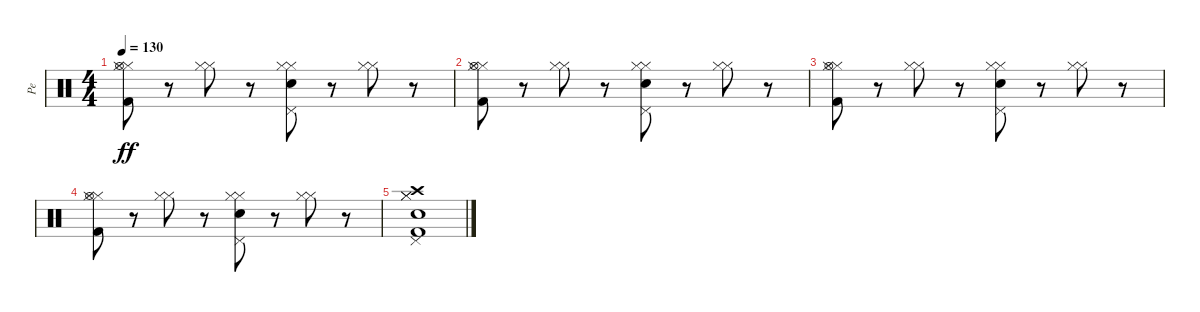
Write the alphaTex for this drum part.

\track ("Pe" "Pe") {instrument percussion}
\staff {score}
\articulation defaults
\ts (4 4)
\tempo 130
\clef neutral
\ks c
("Hi-Hat (closed)" "Hi-Hat (closed)" "Hi-Hat (open)" "Kick (hit) 2").8{dy ff} r.8 ("Hi-Hat (closed)" "Hi-Hat (closed)").8 r.8 ("Hi-Hat (closed)" "Hi-Hat (closed)" "Pedal Hi-Hat (hit)" "Electric Snare (hit)").8 r.8 ("Hi-Hat (closed)" "Hi-Hat (closed)").8 r.8 |
("Hi-Hat (closed)" "Hi-Hat (closed)" "Hi-Hat (open)" "Kick (hit) 2").8 r.8 ("Hi-Hat (closed)" "Hi-Hat (closed)").8 r.8 ("Hi-Hat (closed)" "Hi-Hat (closed)" "Pedal Hi-Hat (hit)" "Electric Snare (hit)").8 r.8 ("Hi-Hat (closed)" "Hi-Hat (closed)").8 r.8 |
("Hi-Hat (closed)" "Hi-Hat (closed)" "Hi-Hat (open)" "Kick (hit) 2").8 r.8 ("Hi-Hat (closed)" "Hi-Hat (closed)").8 r.8 ("Hi-Hat (closed)" "Hi-Hat (closed)" "Pedal Hi-Hat (hit)" "Electric Snare (hit)").8 r.8 ("Hi-Hat (closed)" "Hi-Hat (closed)").8 r.8 |
("Hi-Hat (closed)" "Hi-Hat (closed)" "Hi-Hat (open)" "Kick (hit) 2").8 r.8 ("Hi-Hat (closed)" "Hi-Hat (closed)").8 r.8 ("Hi-Hat (closed)" "Hi-Hat (closed)" "Pedal Hi-Hat (hit)" "Electric Snare (hit)").8 r.8 ("Hi-Hat (closed)" "Hi-Hat (closed)").8 r.8 |
("Hi-Hat (closed)" "Hi-Hat (closed)" "Crash high (hit)" "Pedal Hi-Hat (hit)" "Electric Snare (hit)" "Kick (hit) 2").1
